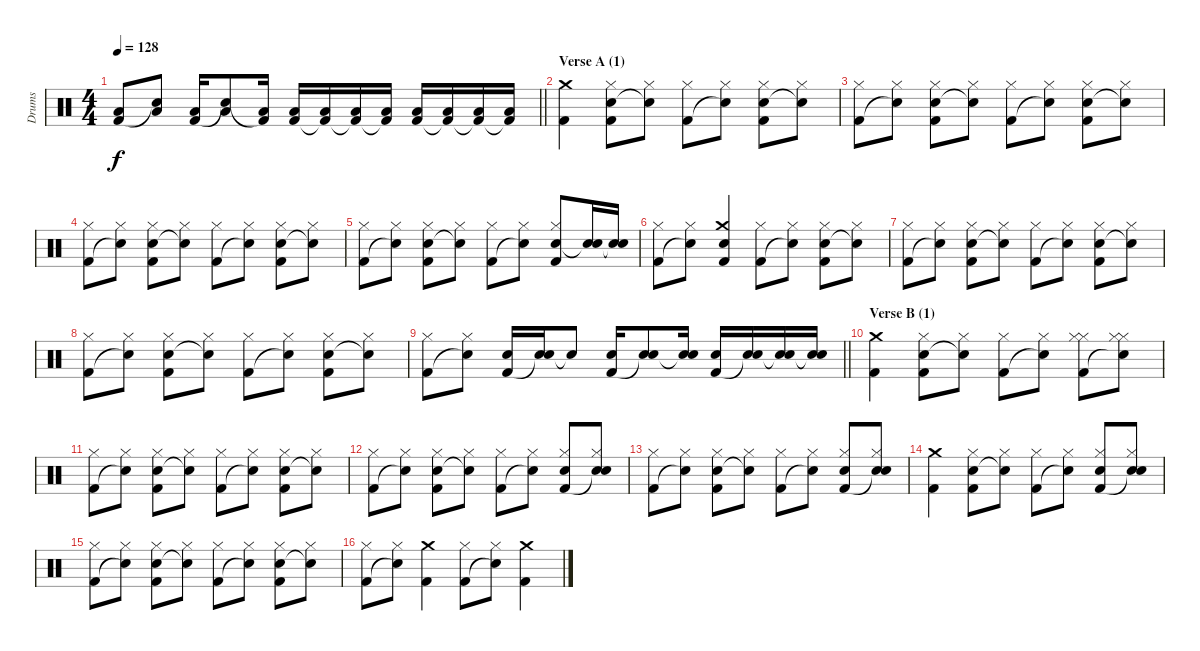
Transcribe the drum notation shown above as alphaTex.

\track ("Drums" "Drums") {instrument percussion}
\staff {score}
\articulation defaults
\ts (4 4)
\tempo 128
\clef neutral
\barLineRight lightlight
\ks aminor
("Low Tom (hit)" "Kick (hit) 2").8{dy f} ("Low Tom (hit)" "Snare (hit)"{t}).8 ("Low Tom (hit)" "Kick (hit) 2").16 ("Low Tom (hit)" "Snare (hit)"{t}).8 ("Low Tom (hit)" "Kick (hit) 2"{t}).16 ("Low Tom (hit)" "Kick (hit) 2").16 ("Low Tom (hit)" "Kick (hit) 2"{t}).16 ("Low Tom (hit)" "Kick (hit) 2"{t}).16 ("Low Tom (hit)" "Kick (hit) 2"{t}).16 ("Low Tom (hit)" "Kick (hit) 2").16 ("Low Tom (hit)" "Kick (hit) 2"{t}).16 ("Low Tom (hit)" "Kick (hit) 2"{t}).16 ("Low Tom (hit)" "Kick (hit) 2"{t}).16 |
\section ("" "Verse A (1)")
("Crash medium (hit)" "Kick (hit) 2").4 ("Hi-Hat (closed)" "Electric Snare (hit)" "Kick (hit) 2").8 ("Hi-Hat (closed)" "Snare (hit)"{t}).8 ("Hi-Hat (closed)" "Kick (hit) 2").8 ("Hi-Hat (closed)" "Snare (hit)"{t}).8 ("Hi-Hat (closed)" "Electric Snare (hit)" "Kick (hit) 2").8 ("Hi-Hat (closed)" "Snare (hit)"{t}).8 |
("Hi-Hat (closed)" "Kick (hit) 2").8 ("Hi-Hat (closed)" "Snare (hit)"{t}).8 ("Hi-Hat (closed)" "Electric Snare (hit)" "Kick (hit) 2").8 ("Hi-Hat (closed)" "Snare (hit)"{t}).8 ("Hi-Hat (closed)" "Kick (hit) 2").8 ("Hi-Hat (closed)" "Snare (hit)"{t}).8 ("Hi-Hat (closed)" "Electric Snare (hit)" "Kick (hit) 2").8 ("Hi-Hat (closed)" "Snare (hit)"{t}).8 |
("Hi-Hat (closed)" "Kick (hit) 2").8 ("Hi-Hat (closed)" "Snare (hit)"{t}).8 ("Hi-Hat (closed)" "Electric Snare (hit)" "Kick (hit) 2").8 ("Hi-Hat (closed)" "Snare (hit)"{t}).8 ("Hi-Hat (closed)" "Kick (hit) 2").8 ("Hi-Hat (closed)" "Snare (hit)"{t}).8 ("Hi-Hat (closed)" "Electric Snare (hit)" "Kick (hit) 2").8 ("Hi-Hat (closed)" "Snare (hit)"{t}).8 |
("Hi-Hat (closed)" "Kick (hit) 2").8 ("Hi-Hat (closed)" "Snare (hit)"{t}).8 ("Hi-Hat (closed)" "Electric Snare (hit)" "Kick (hit) 2").8 ("Hi-Hat (closed)" "Snare (hit)"{t}).8 ("Hi-Hat (closed)" "Kick (hit) 2").8 ("Hi-Hat (closed)" "Snare (hit)"{t}).8 ("Hi-Hat (closed)" "Electric Snare (hit)" "Kick (hit) 2").8 ("Electric Snare (hit)" "Snare (hit)"{t}).16 ("Electric Snare (hit)" "Snare (hit)"{t}).16 |
("Hi-Hat (closed)" "Kick (hit) 2").8 ("Hi-Hat (closed)" "Snare (hit)"{t}).8 ("Crash medium (hit)" "Electric Snare (hit)" "Kick (hit) 2").4 ("Hi-Hat (closed)" "Kick (hit) 2").8 ("Hi-Hat (closed)" "Snare (hit)"{t}).8 ("Hi-Hat (closed)" "Electric Snare (hit)" "Kick (hit) 2").8 ("Hi-Hat (closed)" "Snare (hit)"{t}).8 |
("Hi-Hat (closed)" "Kick (hit) 2").8 ("Hi-Hat (closed)" "Snare (hit)"{t}).8 ("Hi-Hat (closed)" "Electric Snare (hit)" "Kick (hit) 2").8 ("Hi-Hat (closed)" "Snare (hit)"{t}).8 ("Hi-Hat (closed)" "Kick (hit) 2").8 ("Hi-Hat (closed)" "Snare (hit)"{t}).8 ("Hi-Hat (closed)" "Electric Snare (hit)" "Kick (hit) 2").8 ("Hi-Hat (closed)" "Snare (hit)"{t}).8 |
("Hi-Hat (closed)" "Kick (hit) 2").8 ("Hi-Hat (closed)" "Snare (hit)"{t}).8 ("Hi-Hat (closed)" "Electric Snare (hit)" "Kick (hit) 2").8 ("Hi-Hat (closed)" "Snare (hit)"{t}).8 ("Hi-Hat (closed)" "Kick (hit) 2").8 ("Hi-Hat (closed)" "Snare (hit)"{t}).8 ("Hi-Hat (closed)" "Electric Snare (hit)" "Kick (hit) 2").8 ("Hi-Hat (closed)" "Snare (hit)"{t}).8 |
\barLineRight lightlight
("Hi-Hat (closed)" "Kick (hit) 2").8 ("Hi-Hat (closed)" "Snare (hit)"{t}).8 ("Electric Snare (hit)" "Kick (hit) 2").16 ("Electric Snare (hit)" "Snare (hit)"{t}).16 "Snare (hit)"{t}.8 ("Electric Snare (hit)" "Kick (hit) 2").16 ("Electric Snare (hit)" "Snare (hit)"{t}).8 ("Electric Snare (hit)" "Snare (hit)"{t}).16 ("Electric Snare (hit)" "Kick (hit) 2").16 ("Electric Snare (hit)" "Snare (hit)"{t}).16 ("Electric Snare (hit)" "Snare (hit)"{t}).16 ("Electric Snare (hit)" "Snare (hit)"{t}).16 |
\section ("" "Verse B (1)")
("Crash medium (hit)" "Kick (hit) 2").4 ("Hi-Hat (closed)" "Electric Snare (hit)" "Kick (hit) 2").8 ("Hi-Hat (closed)" "Snare (hit)"{t}).8 ("Hi-Hat (closed)" "Kick (hit) 2").8 ("Hi-Hat (closed)" "Snare (hit)"{t}).8 ("Hi-Hat (closed)" "Hi-Hat (closed)" "Kick (hit) 2").8 ("Hi-Hat (closed)" "Hi-Hat (closed)" "Snare (hit)"{t}).8 |
("Hi-Hat (closed)" "Kick (hit) 2").8 ("Hi-Hat (closed)" "Snare (hit)"{t}).8 ("Hi-Hat (closed)" "Electric Snare (hit)" "Kick (hit) 2").8 ("Hi-Hat (closed)" "Snare (hit)"{t}).8 ("Hi-Hat (closed)" "Kick (hit) 2").8 ("Hi-Hat (closed)" "Snare (hit)"{t}).8 ("Hi-Hat (closed)" "Electric Snare (hit)" "Kick (hit) 2").8 ("Hi-Hat (closed)" "Snare (hit)"{t}).8 |
("Hi-Hat (closed)" "Kick (hit) 2").8 ("Hi-Hat (closed)" "Snare (hit)"{t}).8 ("Hi-Hat (closed)" "Electric Snare (hit)" "Kick (hit) 2").8 ("Hi-Hat (closed)" "Snare (hit)"{t}).8 ("Hi-Hat (closed)" "Kick (hit) 2").8 ("Hi-Hat (closed)" "Snare (hit)"{t}).8 ("Hi-Hat (closed)" "Electric Snare (hit)" "Kick (hit) 2").8 ("Hi-Hat (closed)" "Electric Snare (hit)" "Snare (hit)"{t}).8 |
("Hi-Hat (closed)" "Kick (hit) 2").8 ("Hi-Hat (closed)" "Snare (hit)"{t}).8 ("Hi-Hat (closed)" "Electric Snare (hit)" "Kick (hit) 2").8 ("Hi-Hat (closed)" "Snare (hit)"{t}).8 ("Hi-Hat (closed)" "Kick (hit) 2").8 ("Hi-Hat (closed)" "Snare (hit)"{t}).8 ("Hi-Hat (closed)" "Electric Snare (hit)" "Kick (hit) 2").8 ("Hi-Hat (closed)" "Electric Snare (hit)" "Snare (hit)"{t}).8 |
("Crash medium (hit)" "Kick (hit) 2").4 ("Hi-Hat (closed)" "Electric Snare (hit)" "Kick (hit) 2").8 ("Hi-Hat (closed)" "Snare (hit)"{t}).8 ("Hi-Hat (closed)" "Kick (hit) 2").8 ("Hi-Hat (closed)" "Snare (hit)"{t}).8 ("Hi-Hat (closed)" "Electric Snare (hit)" "Kick (hit) 2").8 ("Hi-Hat (closed)" "Electric Snare (hit)" "Snare (hit)"{t}).8 |
("Hi-Hat (closed)" "Kick (hit) 2").8 ("Hi-Hat (closed)" "Snare (hit)"{t}).8 ("Hi-Hat (closed)" "Electric Snare (hit)" "Kick (hit) 2").8 ("Hi-Hat (closed)" "Snare (hit)"{t}).8 ("Hi-Hat (closed)" "Kick (hit) 2").8 ("Hi-Hat (closed)" "Snare (hit)"{t}).8 ("Hi-Hat (closed)" "Electric Snare (hit)" "Kick (hit) 2").8 ("Hi-Hat (closed)" "Snare (hit)"{t}).8 |
("Hi-Hat (closed)" "Kick (hit) 2").8 ("Hi-Hat (closed)" "Snare (hit)"{t}).8 ("Crash medium (hit)" "Kick (hit) 2").4 ("Hi-Hat (closed)" "Kick (hit) 2").8 ("Hi-Hat (closed)" "Snare (hit)"{t}).8 ("Crash medium (hit)" "Kick (hit) 2").4
